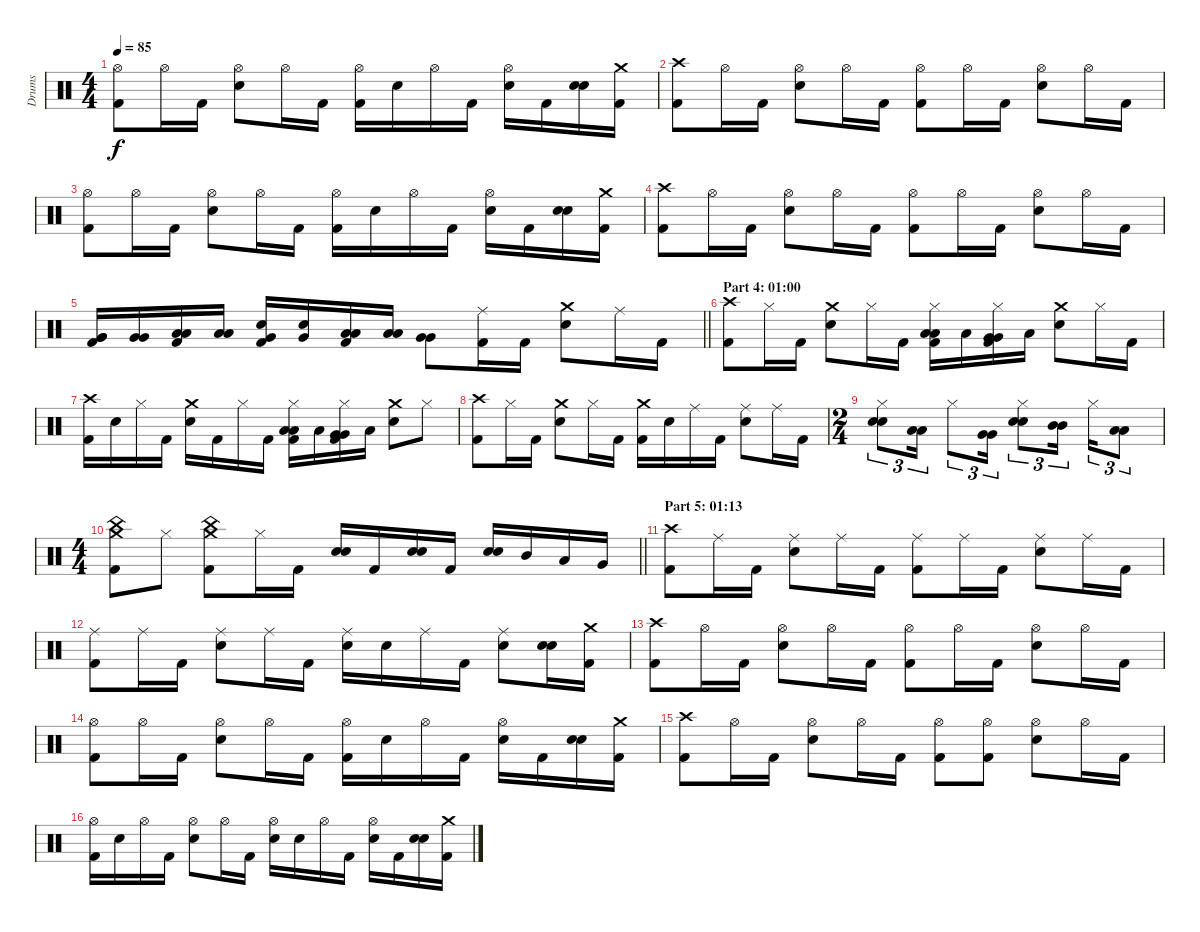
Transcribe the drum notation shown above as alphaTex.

\track ("Drums" "Drums") {instrument percussion}
\staff {score}
\articulation defaults
\ts (4 4)
\tempo 85
\clef neutral
\ks c
("Hi-Hat (open)" "Kick (hit) 2").8{dy f} "Hi-Hat (open)".16 "Kick (hit) 2".16 ("Hi-Hat (open)" "Electric Snare (hit)").8 "Hi-Hat (open)".16 "Kick (hit) 2".16 ("Hi-Hat (open)" "Kick (hit) 2").16 "Electric Snare (hit)".16 "Hi-Hat (open)".16 "Kick (hit) 2".16 ("Hi-Hat (open)" "Electric Snare (hit)").16 "Kick (hit) 2".16 ("Electric Snare (hit)" "Electric Snare (hit)").16{bd 120} ("Crash medium (hit)" "Kick (hit) 2").16 |
("Crash high (hit)" "Kick (hit) 2").8 "Hi-Hat (open)".16 "Kick (hit) 2".16 ("Hi-Hat (open)" "Electric Snare (hit)").8 "Hi-Hat (open)".16 "Kick (hit) 2".16 ("Hi-Hat (open)" "Kick (hit) 2").8 "Hi-Hat (open)".16 "Kick (hit) 2".16 ("Hi-Hat (open)" "Electric Snare (hit)").8 "Hi-Hat (open)".16 "Kick (hit) 2".16 |
("Hi-Hat (open)" "Kick (hit) 2").8 "Hi-Hat (open)".16 "Kick (hit) 2".16 ("Hi-Hat (open)" "Electric Snare (hit)").8 "Hi-Hat (open)".16 "Kick (hit) 2".16 ("Hi-Hat (open)" "Kick (hit) 2").16 "Electric Snare (hit)".16 "Hi-Hat (open)".16 "Kick (hit) 2".16 ("Hi-Hat (open)" "Electric Snare (hit)").16 "Kick (hit) 2".16 ("Electric Snare (hit)" "Electric Snare (hit)").16{bd 120} ("Crash medium (hit)" "Kick (hit) 2").16 |
("Crash high (hit)" "Kick (hit) 2").8 "Hi-Hat (open)".16 "Kick (hit) 2".16 ("Hi-Hat (open)" "Electric Snare (hit)").8 "Hi-Hat (open)".16 "Kick (hit) 2".16 ("Hi-Hat (open)" "Kick (hit) 2").8 "Hi-Hat (open)".16 "Kick (hit) 2".16 ("Hi-Hat (open)" "Electric Snare (hit)").8 "Hi-Hat (open)".16 "Kick (hit) 2".16 |
\barLineRight lightlight
("Very Low Tom (hit)" "Very Low Tom (hit)" "Kick (hit) 2").16{bd 60} ("Very Low Tom (hit)" "Very Low Tom (hit)").16{bd 60} ("Low Floor Tom (hit)" "Low Floor Tom (hit)" "Kick (hit) 2").16{bd 60} ("Low Floor Tom (hit)" "Low Floor Tom (hit)").16{bd 60} ("Snare (hit)" "Very Low Tom (hit)" "Kick (hit) 2").16{bd 60} ("Snare (hit)" "Very Low Tom (hit)").16{bd 60} ("Low Floor Tom (hit)" "Low Floor Tom (hit)" "Kick (hit) 2").16{bd 60} ("Low Floor Tom (hit)" "Low Floor Tom (hit)").16{bd 60} ("Very Low Tom (hit)" "Very Low Tom (hit)").8{bd 60} ("Ride (middle)" "Kick (hit) 2").16 "Kick (hit) 2".16 ("Crash medium (hit)" "Electric Snare (hit)").8 "Ride (middle)".16 "Kick (hit) 2".16 |
\section ("" "Part 4: 01:00")
("Crash high (hit)" "Kick (hit) 2").8 "Hi-Hat (closed)".16 "Kick (hit) 2".16 ("Crash medium (hit)" "Electric Snare (hit)").8 "Hi-Hat (closed)".16 "Kick (hit) 2".16 ("Hi-Hat (closed)" "Low Tom (hit)" "Low Tom (hit)" "Kick (hit) 2").16{bu 30} "Low Floor Tom (hit)".16 ("Hi-Hat (closed)" "Very Low Tom (hit)" "Very Low Tom (hit)" "Kick (hit) 2").16{bu 30} "Low Floor Tom (hit)".16 ("Crash medium (hit)" "Electric Snare (hit)").8 "Hi-Hat (closed)".16 "Kick (hit) 2".16 |
("Crash high (hit)" "Kick (hit) 2").16 "Electric Snare (hit)".16 "Hi-Hat (closed)".16 "Kick (hit) 2".16 ("Crash medium (hit)" "Electric Snare (hit)").16 "Kick (hit) 2".16 "Hi-Hat (closed)".16 "Kick (hit) 2".16 ("Hi-Hat (closed)" "Low Tom (hit)" "Low Tom (hit)" "Kick (hit) 2").16{bu 30} "Low Floor Tom (hit)".16 ("Hi-Hat (closed)" "Very Low Tom (hit)" "Very Low Tom (hit)" "Kick (hit) 2").16{bu 30} "Low Floor Tom (hit)".16 ("Crash medium (hit)" "Electric Snare (hit)").8 "Hi-Hat (closed)".8 |
("Crash high (hit)" "Kick (hit) 2").8 "Hi-Hat (closed)".16 "Kick (hit) 2".16 ("Crash medium (hit)" "Electric Snare (hit)").8 "Hi-Hat (closed)".16 "Kick (hit) 2".16 ("Crash medium (hit)" "Kick (hit) 2").16 "Electric Snare (hit)".16 "Ride (middle)".16 "Kick (hit) 2".16 ("Ride (middle)" "Electric Snare (hit)").8 "Ride (middle)".16 "Kick (hit) 2".16 |
\ts (2 4)
("Hi-Hat (closed)" "Electric Snare (hit)" "Electric Snare (hit)").8{tu (3 2) bu 30} ("Low Tom (hit)" "Low Tom (hit)").16{tu (3 2)} "Hi-Hat (closed)".8{tu (3 2)} ("Very Low Tom (hit)" "Very Low Tom (hit)").16{tu (3 2)} ("Hi-Hat (closed)" "Electric Snare (hit)" "Electric Snare (hit)").8{tu (3 2) bu 30} ("Mid Tom (hit)" "Mid Tom (hit)").16{tu (3 2) beam splitsecondary} "Hi-Hat (closed)".16{tu (3 2)} ("Low Tom (hit)" "Low Tom (hit)").8{tu (3 2)} |
\ts (4 4)
\barLineRight lightlight
("Crash medium (hit)" "China (hit)" "Kick (hit) 2").8 "Hi-Hat (closed)".8 ("Crash medium (hit)" "China (hit)" "Kick (hit) 2").8 "Hi-Hat (closed)".16 "Kick (hit) 2".16 ("Electric Snare (hit)" "Electric Snare (hit)").16{bd 120} "Kick (hit) 2".16 ("Electric Snare (hit)" "Electric Snare (hit)").16{bd 120} "Kick (hit) 2".16 ("Electric Snare (hit)" "Electric Snare (hit)").16{bd 120} "Mid Tom (hit)".16 "Low Tom (hit)".16 "Very Low Tom (hit)".16 |
\section ("" "Part 5: 01:13")
("Crash high (hit)" "Kick (hit) 2").8 "Ride (middle)".16 "Kick (hit) 2".16 ("Ride (middle)" "Electric Snare (hit)").8 "Ride (middle)".16 "Kick (hit) 2".16 ("Ride (middle)" "Kick (hit) 2").8 "Ride (middle)".16 "Kick (hit) 2".16 ("Ride (middle)" "Electric Snare (hit)").8 "Ride (middle)".16 "Kick (hit) 2".16 |
("Ride (middle)" "Kick (hit) 2").8 "Ride (middle)".16 "Kick (hit) 2".16 ("Ride (middle)" "Electric Snare (hit)").8 "Ride (middle)".16 "Kick (hit) 2".16 ("Ride (middle)" "Electric Snare (hit)").16 "Electric Snare (hit)".16 "Ride (middle)".16 "Kick (hit) 2".16 ("Ride (middle)" "Electric Snare (hit)").8 ("Electric Snare (hit)" "Electric Snare (hit)").16{bd 120} ("Crash medium (hit)" "Kick (hit) 2").16 |
("Crash high (hit)" "Kick (hit) 2").8 "Hi-Hat (open)".16 "Kick (hit) 2".16 ("Hi-Hat (open)" "Electric Snare (hit)").8 "Hi-Hat (open)".16 "Kick (hit) 2".16 ("Hi-Hat (open)" "Kick (hit) 2").8 "Hi-Hat (open)".16 "Kick (hit) 2".16 ("Hi-Hat (open)" "Electric Snare (hit)").8 "Hi-Hat (open)".16 "Kick (hit) 2".16 |
("Hi-Hat (open)" "Kick (hit) 2").8 "Hi-Hat (open)".16 "Kick (hit) 2".16 ("Hi-Hat (open)" "Electric Snare (hit)").8 "Hi-Hat (open)".16 "Kick (hit) 2".16 ("Hi-Hat (open)" "Kick (hit) 2").16 "Electric Snare (hit)".16 "Hi-Hat (open)".16 "Kick (hit) 2".16 ("Hi-Hat (open)" "Electric Snare (hit)").16 "Kick (hit) 2".16 ("Electric Snare (hit)" "Electric Snare (hit)").16{bd 120} ("Crash medium (hit)" "Kick (hit) 2").16 |
("Crash high (hit)" "Kick (hit) 2").8 "Hi-Hat (open)".16 "Kick (hit) 2".16 ("Hi-Hat (open)" "Electric Snare (hit)").8 "Hi-Hat (open)".16 "Kick (hit) 2".16 ("Hi-Hat (open)" "Kick (hit) 2").8 ("Hi-Hat (open)" "Kick (hit) 2").8 ("Hi-Hat (open)" "Electric Snare (hit)").8 "Hi-Hat (open)".16 "Kick (hit) 2".16 |
("Hi-Hat (open)" "Kick (hit) 2").16 "Electric Snare (hit)".16 "Hi-Hat (open)".16 "Kick (hit) 2".16 ("Hi-Hat (open)" "Electric Snare (hit)").8 "Hi-Hat (open)".16 "Kick (hit) 2".16 ("Hi-Hat (open)" "Electric Snare (hit)").16 "Electric Snare (hit)".16 "Hi-Hat (open)".16 "Kick (hit) 2".16 ("Hi-Hat (open)" "Electric Snare (hit)").16 "Kick (hit) 2".16 ("Electric Snare (hit)" "Electric Snare (hit)").16{bd 120} ("Crash medium (hit)" "Kick (hit) 2").16
